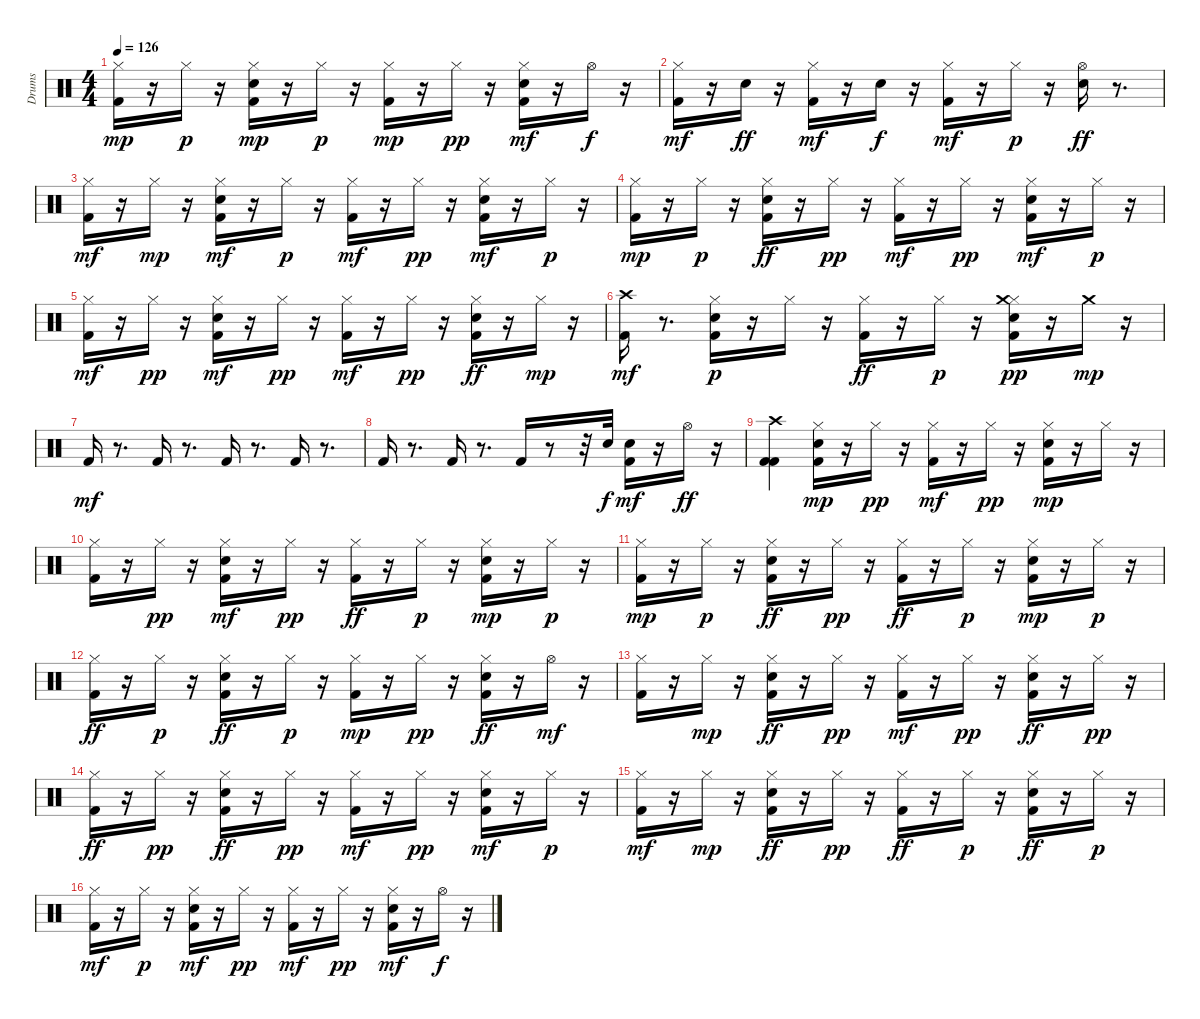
\track ("Drums" "Drums") {instrument percussion}
\staff {score}
\articulation defaults
\ts (4 4)
\tempo 126
\clef neutral
\ks c
("Hi-Hat (closed)" "Kick (hit) 2").16{dy mp} r.16 "Hi-Hat (closed)".16{dy p} r.16 ("Hi-Hat (closed)" "Kick (hit) 2" "Snare (hit) 2").16{dy mp} r.16 "Hi-Hat (closed)".16{dy p} r.16 ("Hi-Hat (closed)" "Kick (hit) 2").16{dy mp} r.16 "Hi-Hat (closed)".16{dy pp} r.16 ("Snare (hit) 2" "Hi-Hat (closed)" "Kick (hit) 2").16{dy mf} r.16 "Hi-Hat (open)".16{dy f} r.16 |
("Hi-Hat (closed)" "Kick (hit) 2").16{dy mf} r.16 "Snare (hit) 2".16{dy ff} r.16 ("Hi-Hat (closed)" "Kick (hit) 2").16{dy mf} r.16 "Snare (hit) 2".16{dy f} r.16 ("Kick (hit) 2" "Hi-Hat (closed)").16{dy mf} r.16 "Hi-Hat (closed)".16{dy p} r.16 ("Snare (hit) 2" "Hi-Hat (open)").16{dy ff} r.8{d} |
("Kick (hit) 2" "Hi-Hat (closed)").16{dy mf} r.16 "Hi-Hat (closed)".16{dy mp} r.16 ("Snare (hit) 2" "Hi-Hat (closed)" "Kick (hit) 2").16{dy mf} r.16 "Hi-Hat (closed)".16{dy p} r.16 ("Hi-Hat (closed)" "Kick (hit) 2").16{dy mf} r.16 "Hi-Hat (closed)".16{dy pp} r.16 ("Snare (hit) 2" "Kick (hit) 2" "Hi-Hat (closed)").16{dy mf} r.16 "Hi-Hat (closed)".16{dy p} r.16 |
("Kick (hit) 2" "Hi-Hat (closed)").16{dy mp} r.16 "Hi-Hat (closed)".16{dy p} r.16 ("Kick (hit) 2" "Snare (hit) 2" "Hi-Hat (closed)").16{dy ff} r.16 "Hi-Hat (closed)".16{dy pp} r.16 ("Kick (hit) 2" "Hi-Hat (closed)").16{dy mf} r.16 "Hi-Hat (closed)".16{dy pp} r.16 ("Snare (hit) 2" "Kick (hit) 2" "Hi-Hat (closed)").16{dy mf} r.16 "Hi-Hat (closed)".16{dy p} r.16 |
("Hi-Hat (closed)" "Kick (hit) 2").16{dy mf} r.16 "Hi-Hat (closed)".16{dy pp} r.16 ("Kick (hit) 2" "Hi-Hat (closed)" "Snare (hit) 2").16{dy mf} r.16 "Hi-Hat (closed)".16{dy pp} r.16 ("Kick (hit) 2" "Hi-Hat (closed)").16{dy mf} r.16 "Hi-Hat (closed)".16{dy pp} r.16 ("Hi-Hat (closed)" "Kick (hit) 2" "Snare (hit) 2").16{dy ff} r.16 "Hi-Hat (closed)".16{dy mp} r.16 |
("Kick (hit) 2" "Crash high (hit)").16{dy mf} r.8{d} ("Kick (hit) 2" "Snare (hit) 2" "Hi-Hat (closed)").16{dy p} r.16 "Hi-Hat (closed)".16 r.16 ("Kick (hit) 2" "Hi-Hat (closed)").16{dy ff} r.16 "Hi-Hat (closed)".16{dy p} r.16 ("Snare (hit) 2" "Kick (hit) 2" "Hi-Hat (closed)" "Crash medium (hit)").16{dy pp} r.16 "Crash medium (hit)".16{dy mp} r.16 |
"Kick (hit) 2".16{dy mf} r.8{d} "Kick (hit) 2".16 r.8{d} "Kick (hit) 2".16 r.8{d} "Kick (hit) 2".16 r.8{d} |
"Kick (hit) 2".16 r.8{d} "Kick (hit) 2".16 r.8{d} "Kick (hit) 2".16 r.8 r.32 "Snare (hit) 2".32{dy f} ("Snare (hit) 2" "Kick (hit) 2").16{dy mf} r.16 "Hi-Hat (open)".16{dy ff} r.16 |
("Kick (hit) 2" "Kick (hit) 2" "Crash high (hit)").4 ("Kick (hit) 2" "Snare (hit) 2" "Hi-Hat (closed)").16{dy mp} r.16 "Hi-Hat (closed)".16{dy pp} r.16 ("Kick (hit) 2" "Hi-Hat (closed)").16{dy mf} r.16 "Hi-Hat (closed)".16{dy pp} r.16 ("Snare (hit) 2" "Hi-Hat (closed)" "Kick (hit) 2").16{dy mp} r.16 "Hi-Hat (closed)".16 r.16 |
("Kick (hit) 2" "Hi-Hat (closed)").16 r.16 "Hi-Hat (closed)".16{dy pp} r.16 ("Kick (hit) 2" "Snare (hit) 2" "Hi-Hat (closed)").16{dy mf} r.16 "Hi-Hat (closed)".16{dy pp} r.16 ("Kick (hit) 2" "Hi-Hat (closed)").16{dy ff} r.16 "Hi-Hat (closed)".16{dy p} r.16 ("Kick (hit) 2" "Snare (hit) 2" "Hi-Hat (closed)").16{dy mp} r.16 "Hi-Hat (closed)".16{dy p} r.16 |
("Kick (hit) 2" "Hi-Hat (closed)").16{dy mp} r.16 "Hi-Hat (closed)".16{dy p} r.16 ("Kick (hit) 2" "Hi-Hat (closed)" "Snare (hit) 2").16{dy ff} r.16 "Hi-Hat (closed)".16{dy pp} r.16 ("Kick (hit) 2" "Hi-Hat (closed)").16{dy ff} r.16 "Hi-Hat (closed)".16{dy p} r.16 ("Kick (hit) 2" "Snare (hit) 2" "Hi-Hat (closed)").16{dy mp} r.16 "Hi-Hat (closed)".16{dy p} r.16 |
("Kick (hit) 2" "Hi-Hat (closed)").16{dy ff} r.16 "Hi-Hat (closed)".16{dy p} r.16 ("Kick (hit) 2" "Snare (hit) 2" "Hi-Hat (closed)").16{dy ff} r.16 "Hi-Hat (closed)".16{dy p} r.16 ("Kick (hit) 2" "Hi-Hat (closed)").16{dy mp} r.16 "Hi-Hat (closed)".16{dy pp} r.16 ("Kick (hit) 2" "Hi-Hat (closed)" "Snare (hit) 2").16{dy ff} r.16 "Hi-Hat (open)".16{dy mf} r.16 |
("Kick (hit) 2" "Hi-Hat (closed)").16 r.16 "Hi-Hat (closed)".16{dy mp} r.16 ("Kick (hit) 2" "Snare (hit) 2" "Hi-Hat (closed)").16{dy ff} r.16 "Hi-Hat (closed)".16{dy pp} r.16 ("Hi-Hat (closed)" "Kick (hit) 2").16{dy mf} r.16 "Hi-Hat (closed)".16{dy pp} r.16 ("Kick (hit) 2" "Snare (hit) 2" "Hi-Hat (closed)").16{dy ff} r.16 "Hi-Hat (closed)".16{dy pp} r.16 |
("Kick (hit) 2" "Hi-Hat (closed)").16{dy ff} r.16 "Hi-Hat (closed)".16{dy pp} r.16 ("Kick (hit) 2" "Snare (hit) 2" "Hi-Hat (closed)").16{dy ff} r.16 "Hi-Hat (closed)".16{dy pp} r.16 ("Kick (hit) 2" "Hi-Hat (closed)").16{dy mf} r.16 "Hi-Hat (closed)".16{dy pp} r.16 ("Snare (hit) 2" "Hi-Hat (closed)" "Kick (hit) 2").16{dy mf} r.16 "Hi-Hat (closed)".16{dy p} r.16 |
("Hi-Hat (closed)" "Kick (hit) 2").16{dy mf} r.16 "Hi-Hat (closed)".16{dy mp} r.16 ("Kick (hit) 2" "Hi-Hat (closed)" "Snare (hit) 2").16{dy ff} r.16 "Hi-Hat (closed)".16{dy pp} r.16 ("Kick (hit) 2" "Hi-Hat (closed)").16{dy ff} r.16 "Hi-Hat (closed)".16{dy p} r.16 ("Snare (hit) 2" "Kick (hit) 2" "Hi-Hat (closed)").16{dy ff} r.16 "Hi-Hat (closed)".16{dy p} r.16 |
("Hi-Hat (closed)" "Kick (hit) 2").16{dy mf} r.16 "Hi-Hat (closed)".16{dy p} r.16 ("Kick (hit) 2" "Hi-Hat (closed)" "Snare (hit) 2").16{dy mf} r.16 "Hi-Hat (closed)".16{dy pp} r.16 ("Hi-Hat (closed)" "Kick (hit) 2").16{dy mf} r.16 "Hi-Hat (closed)".16{dy pp} r.16 ("Hi-Hat (closed)" "Kick (hit) 2" "Snare (hit) 2").16{dy mf} r.16 "Hi-Hat (open)".16{dy f} r.16
